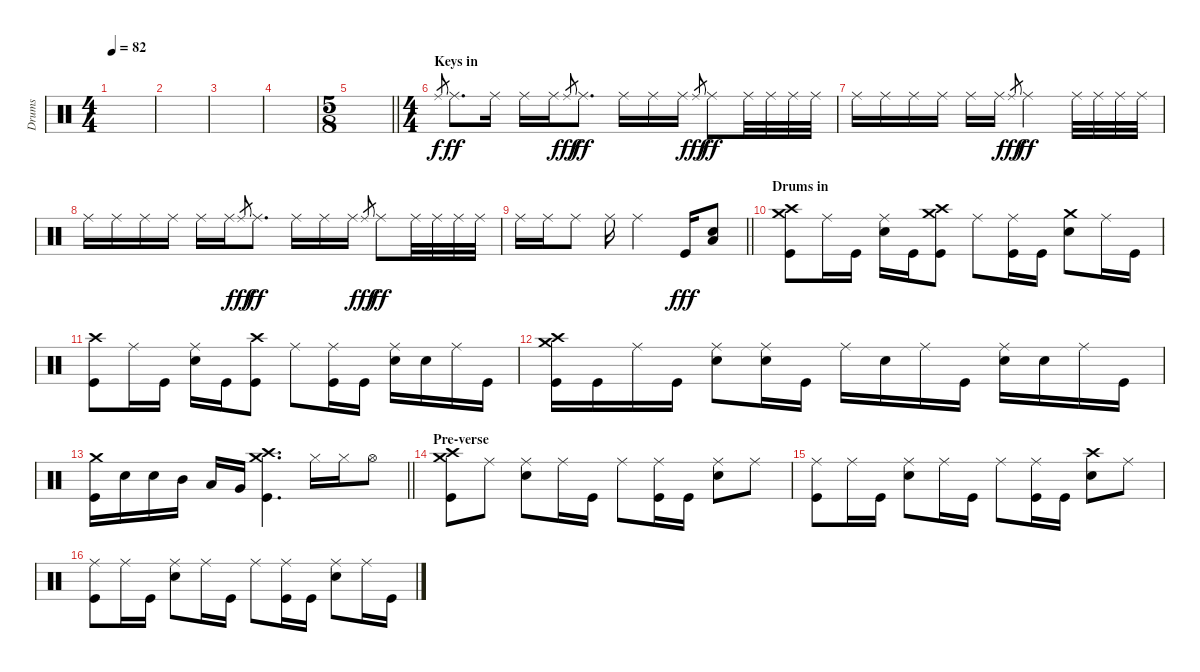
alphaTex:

\track ("Drums" "Drums") {instrument percussion}
\staff {score}
\articulation defaults
\ts (4 4)
\tempo 82
\clef neutral
\ks c
|
|
|
|
\ts (5 8)
\barLineRight lightlight
|
\ts (4 4)
\section ("" "Keys in")
"Ride (middle)".8{gr} "Ride (middle)".8{d dy ff} "Ride (middle)".16 "Ride (middle)".16 "Ride (middle)".16 "Ride (middle)".8{gr dy fff} "Ride (middle)".8{d dy ff} "Ride (middle)".16 "Ride (middle)".16 "Ride (middle)".16 "Ride (middle)".8{gr dy fff} "Ride (middle)".8{dy ff} "Ride (middle)".32 "Ride (middle)".32 "Ride (middle)".32 "Ride (middle)".32 |
"Ride (middle)".16 "Ride (middle)".16 "Ride (middle)".16 "Ride (middle)".16 "Ride (middle)".16 "Ride (middle)".16 "Ride (middle)".8{gr dy fff} "Ride (middle)".2{dy ff} "Ride (middle)".32 "Ride (middle)".32 "Ride (middle)".32 "Ride (middle)".32 |
"Ride (middle)".16 "Ride (middle)".16 "Ride (middle)".16 "Ride (middle)".16 "Ride (middle)".16 "Ride (middle)".16 "Ride (middle)".8{gr dy fff} "Ride (middle)".8{d dy ff} "Ride (middle)".16 "Ride (middle)".16 "Ride (middle)".16 "Ride (middle)".8{gr dy fff} "Ride (middle)".8{dy ff} "Ride (middle)".32 "Ride (middle)".32 "Ride (middle)".32 "Ride (middle)".32 |
\barLineRight lightlight "Ride (middle)".16 "Ride (middle)".16 "Ride (middle)".8 "Ride (middle)".16 "Ride (middle)".2 "Kick (hit)".16{dy fff}
("Low Floor Tom (hit)" "Snare (hit) 2").8 |
\section ("" "Drums in")
("Crash medium (hit)" "Crash high (hit)" "Kick (hit)").8 "Ride (middle)".16 "Kick (hit)".16 ("Ride (middle)" "Snare (hit) 2").16 "Kick (hit)".16 ("Crash medium (hit)" "Crash high (hit)" "Kick (hit)").8 "Ride (middle)".8 ("Ride (middle)" "Kick (hit)").16 "Kick (hit)".16 ("Crash medium (hit)" "Snare (hit) 2").8 "Ride (middle)".16 "Kick (hit)".16 |
("Crash high (hit)" "Kick (hit)").8 "Ride (middle)".16 "Kick (hit)".16 ("Ride (middle)" "Snare (hit) 2").16 "Kick (hit)".16 ("Crash high (hit)" "Kick (hit)").8 "Ride (middle)".8 ("Ride (middle)" "Kick (hit)").16 "Kick (hit)".16 ("Ride (middle)" "Snare (hit) 2").16 "Snare (hit) 2".16 "Ride (middle)".16 "Kick (hit)".16 |
("Crash medium (hit)" "Crash high (hit)" "Kick (hit)").16 "Kick (hit)".16 "Ride (middle)".16 "Kick (hit)".16 ("Ride (middle)" "Snare (hit) 2").8 ("Ride (middle)" "Snare (hit) 2").16 "Kick (hit)".16 "Ride (middle)".16 "Snare (hit) 2".16 "Ride (middle)".16 "Kick (hit)".16 ("Ride (middle)" "Snare (hit) 2").16 "Snare (hit) 2".16 "Ride (middle)".16 "Kick (hit)".16 |
\barLineRight lightlight
("Crash medium (hit)" "Kick (hit)").16 "Snare (hit) 2".16 "Snare (hit) 2".16 "Mid Tom (hit)".16 "Low Tom (hit)".16 "Very Low Tom (hit)".16 ("Crash medium (hit)" "Crash high (hit)" "Kick (hit)").4{d} "Hi-Hat (closed)".16 "Hi-Hat (closed)".16 "Hi-Hat (open)".8 |
\section ("" "Pre-verse")
("Crash medium (hit)" "Crash high (hit)" "Kick (hit)").8 "Ride (middle)".8 ("Ride (middle)" "Snare (hit) 2").8 "Ride (middle)".16 "Kick (hit)".16 "Ride (middle)".8 ("Ride (middle)" "Kick (hit)").16 "Kick (hit)".16 ("Ride (middle)" "Snare (hit) 2").8 "Ride (middle)".8 |
("Ride (middle)" "Kick (hit)").8 "Ride (middle)".16 "Kick (hit)".16 ("Ride (middle)" "Snare (hit) 2").8 "Ride (middle)".16 "Kick (hit)".16 "Ride (middle)".8 ("Ride (middle)" "Kick (hit)").16 "Kick (hit)".16 ("Crash high (hit)" "Snare (hit) 2").8 "Ride (middle)".8 |
("Ride (middle)" "Kick (hit)").8 "Ride (middle)".16 "Kick (hit)".16 ("Ride (middle)" "Snare (hit) 2").8 "Ride (middle)".16 "Kick (hit)".16 "Ride (middle)".8 ("Ride (middle)" "Kick (hit)").16 "Kick (hit)".16 ("Ride (middle)" "Snare (hit) 2").8 "Ride (middle)".16 "Kick (hit)".16
